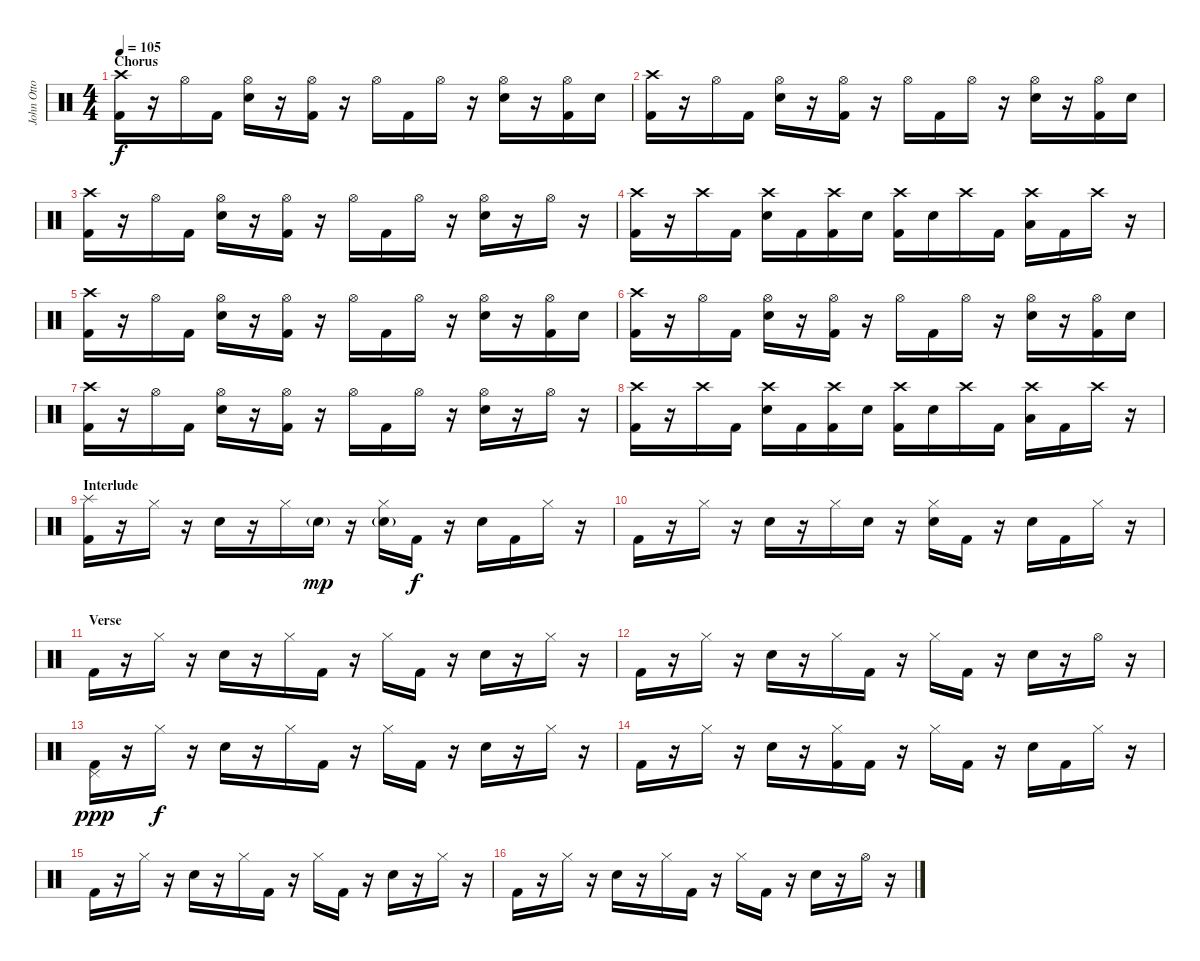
\track ("John Otto - Drums" "John Otto ") {instrument percussion}
\staff {score}
\articulation defaults
\ts (4 4)
\section ("" "Chorus")
\tempo 105
\clef neutral
\ks c
("Crash high (hit)" "Kick (hit) 2").16{dy f} r.16 "Hi-Hat (open)".16 "Kick (hit) 2".16 ("Hi-Hat (open)" "Electric Snare (hit)").16 r.16 ("Hi-Hat (open)" "Kick (hit) 2").16 r.16 "Hi-Hat (open)".16 "Kick (hit) 2".16 "Hi-Hat (open)".16 r.16 ("Hi-Hat (open)" "Electric Snare (hit)").16 r.16 ("Hi-Hat (open)" "Kick (hit) 2").16 "Electric Snare (hit)".16 |
("Crash high (hit)" "Kick (hit) 2").16 r.16 "Hi-Hat (open)".16 "Kick (hit) 2".16 ("Hi-Hat (open)" "Electric Snare (hit)").16 r.16 ("Hi-Hat (open)" "Kick (hit) 2").16 r.16 "Hi-Hat (open)".16 "Kick (hit) 2".16 "Hi-Hat (open)".16 r.16 ("Hi-Hat (open)" "Electric Snare (hit)").16 r.16 ("Hi-Hat (open)" "Kick (hit) 2").16 "Electric Snare (hit)".16 |
("Crash high (hit)" "Kick (hit) 2").16 r.16 "Hi-Hat (open)".16 "Kick (hit) 2".16 ("Hi-Hat (open)" "Electric Snare (hit)").16 r.16 ("Hi-Hat (open)" "Kick (hit) 2").16 r.16 "Hi-Hat (open)".16 "Kick (hit) 2".16 "Hi-Hat (open)".16 r.16 ("Hi-Hat (open)" "Electric Snare (hit)").16 r.16 "Hi-Hat (open)".16 r.16 |
("Crash high (hit)" "Kick (hit) 2").16 r.16 "Crash high (hit)".16 "Kick (hit) 2".16 ("Crash high (hit)" "Electric Snare (hit)").16 "Kick (hit) 2".16 ("Crash high (hit)" "Kick (hit) 2").16 "Electric Snare (hit)".16 ("Crash high (hit)" "Kick (hit) 2").16 "Electric Snare (hit)".16 "Crash high (hit)".16 "Kick (hit) 2".16 ("Crash high (hit)" "Low Tom (hit)").16 "Kick (hit) 2".16 "Crash high (hit)".16 r.16 |
("Crash high (hit)" "Kick (hit) 2").16 r.16 "Hi-Hat (open)".16 "Kick (hit) 2".16 ("Hi-Hat (open)" "Electric Snare (hit)").16 r.16 ("Hi-Hat (open)" "Kick (hit) 2").16 r.16 "Hi-Hat (open)".16 "Kick (hit) 2".16 "Hi-Hat (open)".16 r.16 ("Hi-Hat (open)" "Electric Snare (hit)").16 r.16 ("Hi-Hat (open)" "Kick (hit) 2").16 "Electric Snare (hit)".16 |
("Crash high (hit)" "Kick (hit) 2").16 r.16 "Hi-Hat (open)".16 "Kick (hit) 2".16 ("Hi-Hat (open)" "Electric Snare (hit)").16 r.16 ("Hi-Hat (open)" "Kick (hit) 2").16 r.16 "Hi-Hat (open)".16 "Kick (hit) 2".16 "Hi-Hat (open)".16 r.16 ("Hi-Hat (open)" "Electric Snare (hit)").16 r.16 ("Hi-Hat (open)" "Kick (hit) 2").16 "Electric Snare (hit)".16 |
("Crash high (hit)" "Kick (hit) 2").16 r.16 "Hi-Hat (open)".16 "Kick (hit) 2".16 ("Hi-Hat (open)" "Electric Snare (hit)").16 r.16 ("Hi-Hat (open)" "Kick (hit) 2").16 r.16 "Hi-Hat (open)".16 "Kick (hit) 2".16 "Hi-Hat (open)".16 r.16 ("Hi-Hat (open)" "Electric Snare (hit)").16 r.16 "Hi-Hat (open)".16 r.16 |
("Crash high (hit)" "Kick (hit) 2").16 r.16 "Crash high (hit)".16 "Kick (hit) 2".16 ("Crash high (hit)" "Electric Snare (hit)").16 "Kick (hit) 2".16 ("Crash high (hit)" "Kick (hit) 2").16 "Electric Snare (hit)".16 ("Crash high (hit)" "Kick (hit) 2").16 "Electric Snare (hit)".16 "Crash high (hit)".16 "Kick (hit) 2".16 ("Crash high (hit)" "Low Tom (hit)").16 "Kick (hit) 2".16 "Crash high (hit)".16 r.16 |
\section ("" "Interlude")
("Splash (hit)" "Kick (hit) 2").16 r.16 "Hi-Hat (closed)".16 r.16 "Electric Snare (hit)".16 r.16 "Hi-Hat (closed)".16 "Electric Snare (hit)"{g}.16{dy mp} r.16 ("Hi-Hat (closed)" "Electric Snare (hit)"{g}).16 "Kick (hit) 2".16{dy f} r.16 "Electric Snare (hit)".16 "Kick (hit) 2".16 "Hi-Hat (closed)".16 r.16 |
"Kick (hit) 2".16 r.16 "Hi-Hat (closed)".16 r.16 "Electric Snare (hit)".16 r.16 "Hi-Hat (closed)".16 "Electric Snare (hit)".16 r.16 ("Hi-Hat (closed)" "Electric Snare (hit)").16 "Kick (hit) 2".16 r.16 "Electric Snare (hit)".16 "Kick (hit) 2".16 "Hi-Hat (closed)".16 r.16 |
\section ("" "Verse")
"Kick (hit) 2".16 r.16 "Hi-Hat (closed)".16 r.16 "Electric Snare (hit)".16 r.16 "Hi-Hat (closed)".16 "Kick (hit) 2".16 r.16 "Hi-Hat (closed)".16 "Kick (hit) 2".16 r.16 "Electric Snare (hit)".16 r.16 "Hi-Hat (closed)".16 r.16 |
"Kick (hit) 2".16 r.16 "Hi-Hat (closed)".16 r.16 "Electric Snare (hit)".16 r.16 "Hi-Hat (closed)".16 "Kick (hit) 2".16 r.16 "Hi-Hat (closed)".16 "Kick (hit) 2".16 r.16 "Electric Snare (hit)".16 r.16 "Hi-Hat (open)".16 r.16 |
("Pedal Hi-Hat (hit)" "Kick (hit) 2").16{dy ppp} r.16 "Hi-Hat (closed)".16{dy f} r.16 "Electric Snare (hit)".16 r.16 "Hi-Hat (closed)".16 "Kick (hit) 2".16 r.16 "Hi-Hat (closed)".16 "Kick (hit) 2".16 r.16 "Electric Snare (hit)".16 r.16 "Hi-Hat (closed)".16 r.16 |
"Kick (hit) 2".16 r.16 "Hi-Hat (closed)".16 r.16 "Electric Snare (hit)".16 r.16 ("Hi-Hat (closed)" "Kick (hit) 2").16 "Kick (hit) 2".16 r.16 "Hi-Hat (closed)".16 "Kick (hit) 2".16 r.16 "Electric Snare (hit)".16 "Kick (hit) 2".16 "Hi-Hat (closed)".16 r.16 |
"Kick (hit) 2".16 r.16 "Hi-Hat (closed)".16 r.16 "Electric Snare (hit)".16 r.16 "Hi-Hat (closed)".16 "Kick (hit) 2".16 r.16 "Hi-Hat (closed)".16 "Kick (hit) 2".16 r.16 "Electric Snare (hit)".16 r.16 "Hi-Hat (closed)".16 r.16 |
"Kick (hit) 2".16 r.16 "Hi-Hat (closed)".16 r.16 "Electric Snare (hit)".16 r.16 "Hi-Hat (closed)".16 "Kick (hit) 2".16 r.16 "Hi-Hat (closed)".16 "Kick (hit) 2".16 r.16 "Electric Snare (hit)".16 r.16 "Hi-Hat (open)".16 r.16
